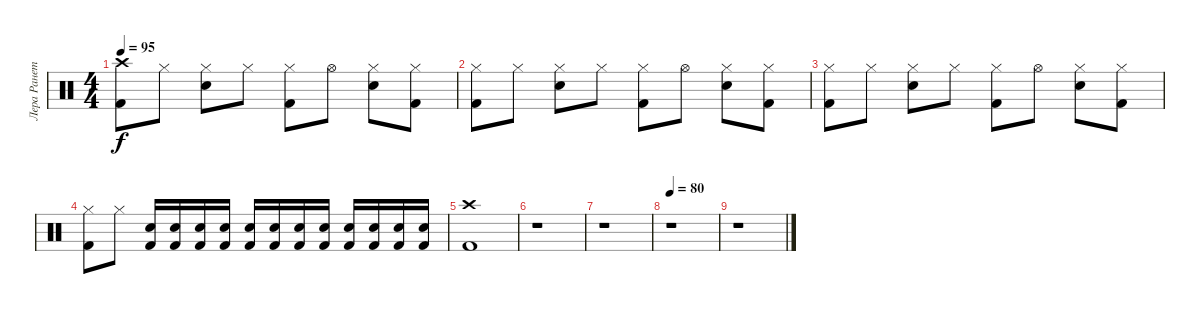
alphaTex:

\track ("Лера Ранетка" "Лера Ранет") {instrument percussion}
\staff {score}
\articulation defaults
\ts (4 4)
\tempo 95
\clef neutral
\ks c
("Crash high (hit)" "Kick (hit) 2").8{dy f} "Hi-Hat (closed)".8 ("Hi-Hat (closed)" "Electric Snare (hit)").8 "Hi-Hat (closed)".8 ("Hi-Hat (closed)" "Kick (hit) 2").8 "Hi-Hat (open)".8 ("Hi-Hat (closed)" "Electric Snare (hit)").8 ("Hi-Hat (closed)" "Kick (hit) 2").8 |
("Hi-Hat (closed)" "Kick (hit) 2").8 "Hi-Hat (closed)".8 ("Hi-Hat (closed)" "Electric Snare (hit)").8 "Hi-Hat (closed)".8 ("Hi-Hat (closed)" "Kick (hit) 2").8 "Hi-Hat (open)".8 ("Hi-Hat (closed)" "Electric Snare (hit)").8 ("Hi-Hat (closed)" "Kick (hit) 2").8 |
("Hi-Hat (closed)" "Kick (hit) 2").8 "Hi-Hat (closed)".8 ("Hi-Hat (closed)" "Electric Snare (hit)").8 "Hi-Hat (closed)".8 ("Hi-Hat (closed)" "Kick (hit) 2").8 "Hi-Hat (open)".8 ("Hi-Hat (closed)" "Electric Snare (hit)").8 ("Hi-Hat (closed)" "Kick (hit) 2").8 |
("Hi-Hat (closed)" "Kick (hit) 2").8 "Hi-Hat (closed)".8 ("Electric Snare (hit)" "Kick (hit) 2").16 ("Electric Snare (hit)" "Kick (hit) 2").16 ("Electric Snare (hit)" "Kick (hit) 2").16 ("Electric Snare (hit)" "Kick (hit) 2").16 ("Electric Snare (hit)" "Kick (hit) 2").16 ("Electric Snare (hit)" "Kick (hit) 2").16 ("Electric Snare (hit)" "Kick (hit) 2").16 ("Electric Snare (hit)" "Kick (hit) 2").16 ("Electric Snare (hit)" "Kick (hit) 2").16 ("Electric Snare (hit)" "Kick (hit) 2").16 ("Electric Snare (hit)" "Kick (hit) 2").16 ("Electric Snare (hit)" "Kick (hit) 2").16 |
("Crash high (hit)" "Kick (hit) 2").1 |
r.1 |
r.1 |
\tempo 80
r.1 |
r.1
